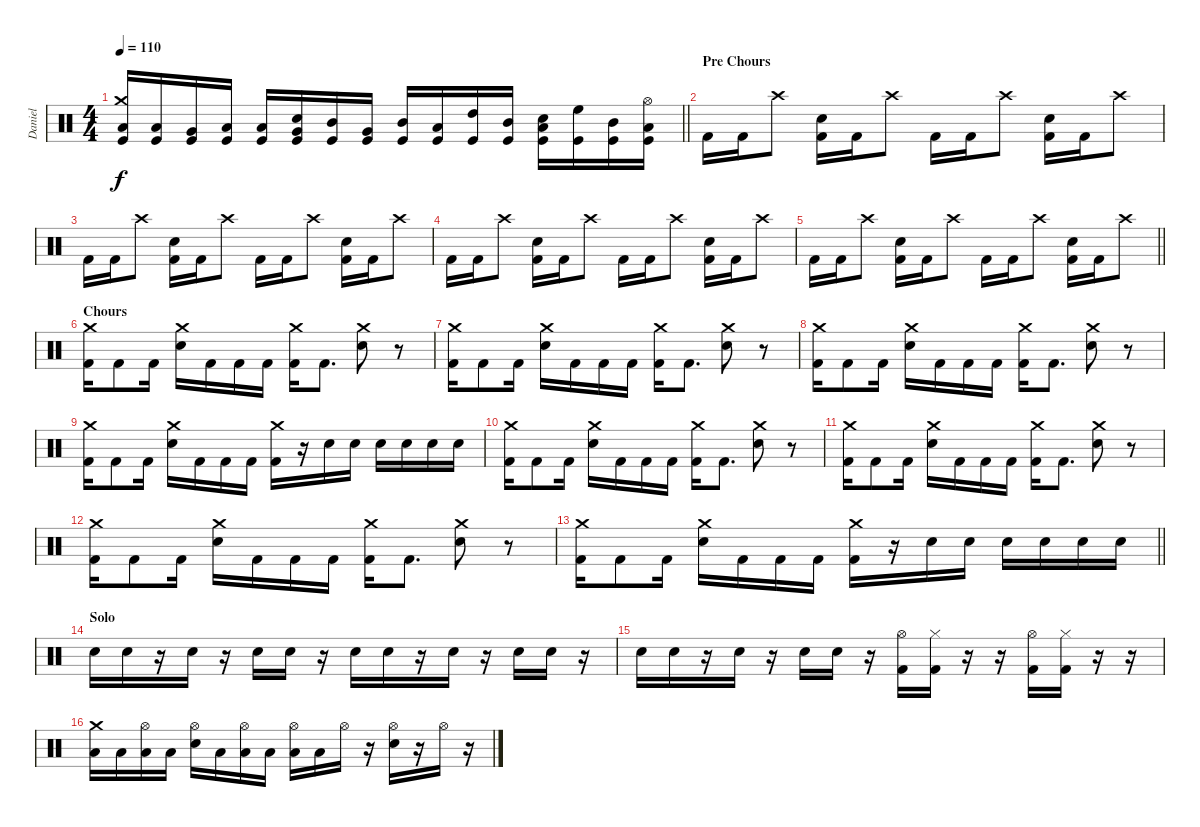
\track ("Daniel" "Daniel") {instrument percussion}
\staff {score}
\articulation defaults
\ts (4 4)
\tempo 110
\clef neutral
\barLineRight lightlight
\ks c
("Kick (hit)" "Crash medium (hit)" "Low Tom (hit)").16{dy f} ("Kick (hit)" "Low Tom (hit)").16 ("Kick (hit)" "Very Low Tom (hit)").16 ("Kick (hit)" "Low Floor Tom (hit)").16 ("Kick (hit)" "Low Tom (hit)").16 ("Kick (hit)" "Snare (hit) 2" "Very Low Tom (hit)").16 ("Kick (hit)" "Mid Tom (hit)").16 ("Kick (hit)" "Very Low Tom (hit)").16 ("Kick (hit)" "Mid Tom (hit)").16 ("Kick (hit)" "Low Tom (hit)").16 ("Kick (hit)" "High Tom (hit)").16 ("Kick (hit)" "Mid Tom (hit)").16 ("Kick (hit)" "Snare (hit) 2" "Low Tom (hit)").16 ("Kick (hit)" "High Floor Tom (hit)").16 ("Kick (hit)" "Mid Tom (hit)").16 ("Kick (hit)" "Hi-Hat (open)" "Low Tom (hit)").16 |
\section ("" "Pre Chours")
"Kick (hit) 2".16 "Kick (hit) 2".16 "Crash high (hit)".8 ("Snare (hit) 2" "Kick (hit) 2").16 "Kick (hit) 2".16 "Crash high (hit)".8 "Kick (hit) 2".16 "Kick (hit) 2".16 "Crash high (hit)".8 ("Snare (hit) 2" "Kick (hit) 2").16 "Kick (hit) 2".16 "Crash high (hit)".8 |
"Kick (hit) 2".16 "Kick (hit) 2".16 "Crash high (hit)".8 ("Snare (hit) 2" "Kick (hit) 2").16 "Kick (hit) 2".16 "Crash high (hit)".8 "Kick (hit) 2".16 "Kick (hit) 2".16 "Crash high (hit)".8 ("Snare (hit) 2" "Kick (hit) 2").16 "Kick (hit) 2".16 "Crash high (hit)".8 |
"Kick (hit) 2".16 "Kick (hit) 2".16 "Crash high (hit)".8 ("Snare (hit) 2" "Kick (hit) 2").16 "Kick (hit) 2".16 "Crash high (hit)".8 "Kick (hit) 2".16 "Kick (hit) 2".16 "Crash high (hit)".8 ("Snare (hit) 2" "Kick (hit) 2").16 "Kick (hit) 2".16 "Crash high (hit)".8 |
\barLineRight lightlight "Kick (hit) 2".16 "Kick (hit) 2".16 "Crash high (hit)".8
("Snare (hit) 2" "Kick (hit) 2").16 "Kick (hit) 2".16 "Crash high (hit)".8 "Kick (hit) 2".16 "Kick (hit) 2".16 "Crash high (hit)".8 ("Snare (hit) 2" "Kick (hit) 2").16 "Kick (hit) 2".16 "Crash high (hit)".8 |
\section ("" "Chours")
("Crash medium (hit)" "Kick (hit) 2").16 "Kick (hit) 2".8 "Kick (hit) 2".16 ("Crash medium (hit)" "Snare (hit) 2").16 "Kick (hit) 2".16 "Kick (hit) 2".16 "Kick (hit) 2".16 ("Crash medium (hit)" "Kick (hit) 2").16 "Kick (hit) 2".8{d} ("Crash medium (hit)" "Snare (hit) 2").8 r.8 |
("Crash medium (hit)" "Kick (hit) 2").16 "Kick (hit) 2".8 "Kick (hit) 2".16 ("Crash medium (hit)" "Snare (hit) 2").16 "Kick (hit) 2".16 "Kick (hit) 2".16 "Kick (hit) 2".16 ("Crash medium (hit)" "Kick (hit) 2").16 "Kick (hit) 2".8{d} ("Crash medium (hit)" "Snare (hit) 2").8 r.8 |
("Crash medium (hit)" "Kick (hit) 2").16 "Kick (hit) 2".8 "Kick (hit) 2".16 ("Crash medium (hit)" "Snare (hit) 2").16 "Kick (hit) 2".16 "Kick (hit) 2".16 "Kick (hit) 2".16 ("Crash medium (hit)" "Kick (hit) 2").16 "Kick (hit) 2".8{d} ("Crash medium (hit)" "Snare (hit) 2").8 r.8 |
("Crash medium (hit)" "Kick (hit) 2").16 "Kick (hit) 2".8 "Kick (hit) 2".16 ("Crash medium (hit)" "Snare (hit) 2").16 "Kick (hit) 2".16 "Kick (hit) 2".16 "Kick (hit) 2".16 ("Crash medium (hit)" "Kick (hit) 2").16 r.16 "Electric Snare (hit)".16 "Electric Snare (hit)".16 "Electric Snare (hit)".16 "Electric Snare (hit)".16 "Electric Snare (hit)".16 "Electric Snare (hit)".16 |
("Crash medium (hit)" "Kick (hit) 2").16 "Kick (hit) 2".8 "Kick (hit) 2".16 ("Crash medium (hit)" "Snare (hit) 2").16 "Kick (hit) 2".16 "Kick (hit) 2".16 "Kick (hit) 2".16 ("Crash medium (hit)" "Kick (hit) 2").16 "Kick (hit) 2".8{d} ("Crash medium (hit)" "Snare (hit) 2").8 r.8 |
("Crash medium (hit)" "Kick (hit) 2").16 "Kick (hit) 2".8 "Kick (hit) 2".16 ("Crash medium (hit)" "Snare (hit) 2").16 "Kick (hit) 2".16 "Kick (hit) 2".16 "Kick (hit) 2".16 ("Crash medium (hit)" "Kick (hit) 2").16 "Kick (hit) 2".8{d} ("Crash medium (hit)" "Snare (hit) 2").8 r.8 |
("Crash medium (hit)" "Kick (hit) 2").16 "Kick (hit) 2".8 "Kick (hit) 2".16 ("Crash medium (hit)" "Snare (hit) 2").16 "Kick (hit) 2".16 "Kick (hit) 2".16 "Kick (hit) 2".16 ("Crash medium (hit)" "Kick (hit) 2").16 "Kick (hit) 2".8{d} ("Crash medium (hit)" "Snare (hit) 2").8 r.8 |
\barLineRight lightlight
("Crash medium (hit)" "Kick (hit) 2").16 "Kick (hit) 2".8 "Kick (hit) 2".16 ("Crash medium (hit)" "Snare (hit) 2").16 "Kick (hit) 2".16 "Kick (hit) 2".16 "Kick (hit) 2".16 ("Crash medium (hit)" "Kick (hit) 2").16 r.16 "Electric Snare (hit)".16 "Electric Snare (hit)".16 "Electric Snare (hit)".16 "Electric Snare (hit)".16 "Electric Snare (hit)".16 "Electric Snare (hit)".16 |
\section ("" "Solo")
"Snare (hit) 2".16 "Snare (hit) 2".16 r.16 "Snare (hit) 2".16 r.16 "Snare (hit) 2".16 "Snare (hit) 2".16 r.16 "Snare (hit) 2".16 "Snare (hit) 2".16 r.16 "Snare (hit) 2".16 r.16 "Snare (hit) 2".16 "Snare (hit) 2".16 r.16 |
"Snare (hit) 2".16 "Snare (hit) 2".16 r.16 "Snare (hit) 2".16 r.16 "Snare (hit) 2".16 "Snare (hit) 2".16 r.16 ("Hi-Hat (open)" "Kick (hit) 2").16 ("Hi-Hat (closed)" "Kick (hit) 2").16 r.16 r.16 ("Hi-Hat (open)" "Kick (hit) 2").16 ("Hi-Hat (closed)" "Kick (hit) 2").16 r.16 r.16 |
("Crash medium (hit)" "Low Floor Tom (hit)").16 "Low Floor Tom (hit)".16 ("Hi-Hat (open)" "Low Floor Tom (hit)").16 "Low Floor Tom (hit)".16 ("Hi-Hat (open)" "Snare (hit) 2").16 "Low Floor Tom (hit)".16 ("Hi-Hat (open)" "Low Floor Tom (hit)").16 "Low Floor Tom (hit)".16 ("Hi-Hat (open)" "Low Floor Tom (hit)").16 "Low Floor Tom (hit)".16 "Hi-Hat (open)".16 r.16 ("Hi-Hat (open)" "Snare (hit) 2").16 r.16 "Hi-Hat (open)".16 r.16
